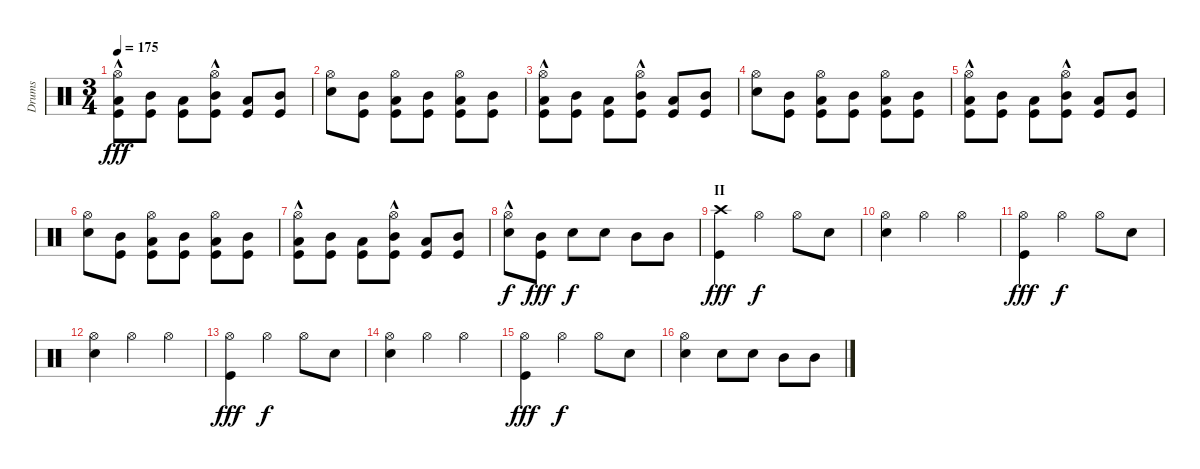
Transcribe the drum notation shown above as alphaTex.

\track ("Drums" "Drums") {instrument percussion}
\staff {score}
\articulation defaults
\ts (3 4)
\tempo 175
\clef neutral
\ks c
("Hi-Hat (open)" "Low Tom (hit)"{hac} "Kick (hit)").8{dy fff} ("Mid Tom (hit)" "Kick (hit)").8 ("Low Tom (hit)" "Kick (hit)").8 ("Hi-Hat (open)" "Mid Tom (hit)"{hac} "Kick (hit)").8 ("Low Tom (hit)" "Kick (hit)").8 ("Mid Tom (hit)" "Kick (hit)").8 |
("Hi-Hat (open)" "Snare (hit) 2").8 ("Mid Tom (hit)" "Kick (hit)").8 ("Hi-Hat (open)" "Low Tom (hit)" "Kick (hit)").8 ("Mid Tom (hit)" "Kick (hit)").8 ("Hi-Hat (open)" "Low Tom (hit)" "Kick (hit)").8 ("Mid Tom (hit)" "Kick (hit)").8 |
("Hi-Hat (open)" "Low Tom (hit)"{hac} "Kick (hit)").8 ("Mid Tom (hit)" "Kick (hit)").8 ("Low Tom (hit)" "Kick (hit)").8 ("Hi-Hat (open)" "Mid Tom (hit)"{hac} "Kick (hit)").8 ("Low Tom (hit)" "Kick (hit)").8 ("Mid Tom (hit)" "Kick (hit)").8 |
("Hi-Hat (open)" "Snare (hit) 2").8 ("Mid Tom (hit)" "Kick (hit)").8 ("Hi-Hat (open)" "Low Tom (hit)" "Kick (hit)").8 ("Mid Tom (hit)" "Kick (hit)").8 ("Hi-Hat (open)" "Low Tom (hit)" "Kick (hit)").8 ("Mid Tom (hit)" "Kick (hit)").8 |
("Hi-Hat (open)" "Low Tom (hit)"{hac} "Kick (hit)").8 ("Mid Tom (hit)" "Kick (hit)").8 ("Low Tom (hit)" "Kick (hit)").8 ("Hi-Hat (open)" "Mid Tom (hit)"{hac} "Kick (hit)").8 ("Low Tom (hit)" "Kick (hit)").8 ("Mid Tom (hit)" "Kick (hit)").8 |
("Hi-Hat (open)" "Snare (hit) 2").8 ("Mid Tom (hit)" "Kick (hit)").8 ("Hi-Hat (open)" "Low Tom (hit)" "Kick (hit)").8 ("Mid Tom (hit)" "Kick (hit)").8 ("Hi-Hat (open)" "Low Tom (hit)" "Kick (hit)").8 ("Mid Tom (hit)" "Kick (hit)").8 |
("Hi-Hat (open)" "Low Tom (hit)"{hac} "Kick (hit)").8 ("Mid Tom (hit)" "Kick (hit)").8 ("Low Tom (hit)" "Kick (hit)").8 ("Hi-Hat (open)" "Mid Tom (hit)"{hac} "Kick (hit)").8 ("Low Tom (hit)" "Kick (hit)").8 ("Mid Tom (hit)" "Kick (hit)").8 |
("Hi-Hat (open)"{hac} "Snare (hit) 2").8{dy f} ("Mid Tom (hit)" "Kick (hit)").8{dy fff} "Snare (hit) 2".8{dy f} "Snare (hit) 2".8 "Mid Tom (hit)".8 "Mid Tom (hit)".8 |
\section ("" "II")
("Crash high (hit)" "Kick (hit)").4{dy fff} "Hi-Hat (open)".4{dy f} "Hi-Hat (open)".8 "Snare (hit) 2".8 |
("Hi-Hat (open)" "Snare (hit) 2").4 "Hi-Hat (open)".4 "Hi-Hat (open)".4 |
("Hi-Hat (open)" "Kick (hit)").4{dy fff} "Hi-Hat (open)".4{dy f} "Hi-Hat (open)".8 "Snare (hit) 2".8 |
("Hi-Hat (open)" "Snare (hit) 2").4 "Hi-Hat (open)".4 "Hi-Hat (open)".4 |
("Hi-Hat (open)" "Kick (hit)").4{dy fff} "Hi-Hat (open)".4{dy f} "Hi-Hat (open)".8 "Snare (hit) 2".8 |
("Hi-Hat (open)" "Snare (hit) 2").4 "Hi-Hat (open)".4 "Hi-Hat (open)".4 |
("Hi-Hat (open)" "Kick (hit)").4{dy fff} "Hi-Hat (open)".4{dy f} "Hi-Hat (open)".8 "Snare (hit) 2".8 |
("Hi-Hat (open)" "Snare (hit) 2").4 "Snare (hit) 2".8 "Snare (hit) 2".8 "Mid Tom (hit)".8 "Mid Tom (hit)".8
